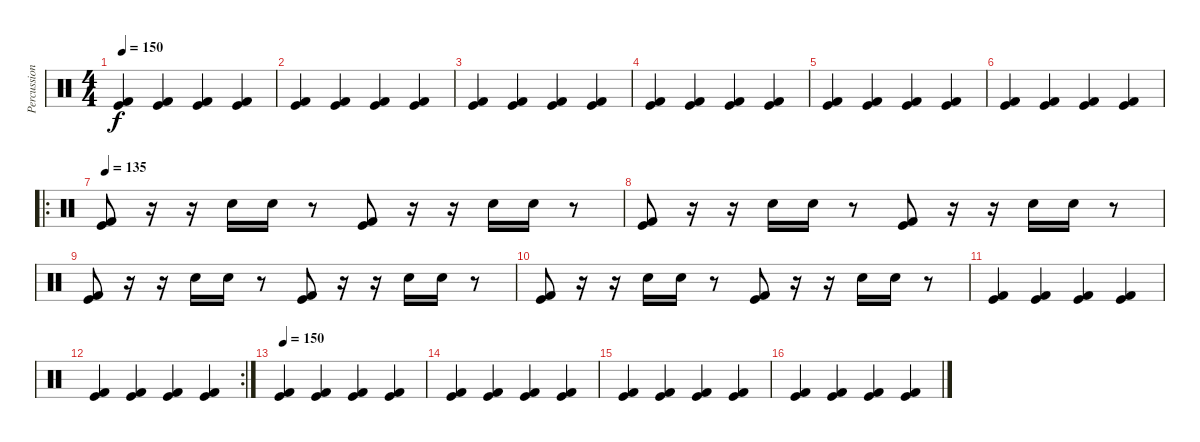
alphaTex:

\track ("Percussion" "Percussion") {instrument percussion}
\staff {score}
\articulation defaults
\ts (4 4)
\tempo 150
\clef neutral
\ks c
("Kick (hit) 2" "Kick (hit)").4{dy f} ("Kick (hit) 2" "Kick (hit)").4 ("Kick (hit) 2" "Kick (hit)").4 ("Kick (hit) 2" "Kick (hit)").4 |
("Kick (hit) 2" "Kick (hit)").4 ("Kick (hit) 2" "Kick (hit)").4 ("Kick (hit) 2" "Kick (hit)").4 ("Kick (hit) 2" "Kick (hit)").4 |
("Kick (hit) 2" "Kick (hit)").4 ("Kick (hit) 2" "Kick (hit)").4 ("Kick (hit) 2" "Kick (hit)").4 ("Kick (hit) 2" "Kick (hit)").4 |
("Kick (hit) 2" "Kick (hit)").4 ("Kick (hit) 2" "Kick (hit)").4 ("Kick (hit) 2" "Kick (hit)").4 ("Kick (hit) 2" "Kick (hit)").4 |
("Kick (hit) 2" "Kick (hit)").4 ("Kick (hit) 2" "Kick (hit)").4 ("Kick (hit) 2" "Kick (hit)").4 ("Kick (hit) 2" "Kick (hit)").4 |
("Kick (hit) 2" "Kick (hit)").4 ("Kick (hit) 2" "Kick (hit)").4 ("Kick (hit) 2" "Kick (hit)").4 ("Kick (hit) 2" "Kick (hit)").4 |
\ro
\tempo 135
("Kick (hit) 2" "Kick (hit)").8 r.16 r.16 "Electric Snare (hit)".16 "Electric Snare (hit)".16 r.8 ("Kick (hit) 2" "Kick (hit)").8 r.16 r.16 "Electric Snare (hit)".16 "Electric Snare (hit)".16 r.8 |
("Kick (hit) 2" "Kick (hit)").8 r.16 r.16 "Electric Snare (hit)".16 "Electric Snare (hit)".16 r.8 ("Kick (hit) 2" "Kick (hit)").8 r.16 r.16 "Electric Snare (hit)".16 "Electric Snare (hit)".16 r.8 |
("Kick (hit) 2" "Kick (hit)").8 r.16 r.16 "Electric Snare (hit)".16 "Electric Snare (hit)".16 r.8 ("Kick (hit) 2" "Kick (hit)").8 r.16 r.16 "Electric Snare (hit)".16 "Electric Snare (hit)".16 r.8 |
("Kick (hit) 2" "Kick (hit)").8 r.16 r.16 "Electric Snare (hit)".16 "Electric Snare (hit)".16 r.8 ("Kick (hit) 2" "Kick (hit)").8 r.16 r.16 "Electric Snare (hit)".16 "Electric Snare (hit)".16 r.8 |
("Kick (hit) 2" "Kick (hit)").4 ("Kick (hit) 2" "Kick (hit)").4 ("Kick (hit) 2" "Kick (hit)").4 ("Kick (hit) 2" "Kick (hit)").4 |
\rc 2
("Kick (hit) 2" "Kick (hit)").4 ("Kick (hit) 2" "Kick (hit)").4 ("Kick (hit) 2" "Kick (hit)").4 ("Kick (hit) 2" "Kick (hit)").4 |
\tempo 150
("Kick (hit) 2" "Kick (hit)").4 ("Kick (hit) 2" "Kick (hit)").4 ("Kick (hit) 2" "Kick (hit)").4 ("Kick (hit) 2" "Kick (hit)").4 |
("Kick (hit) 2" "Kick (hit)").4 ("Kick (hit) 2" "Kick (hit)").4 ("Kick (hit) 2" "Kick (hit)").4 ("Kick (hit) 2" "Kick (hit)").4 |
("Kick (hit) 2" "Kick (hit)").4 ("Kick (hit) 2" "Kick (hit)").4 ("Kick (hit) 2" "Kick (hit)").4 ("Kick (hit) 2" "Kick (hit)").4 |
("Kick (hit) 2" "Kick (hit)").4 ("Kick (hit) 2" "Kick (hit)").4 ("Kick (hit) 2" "Kick (hit)").4 ("Kick (hit) 2" "Kick (hit)").4
